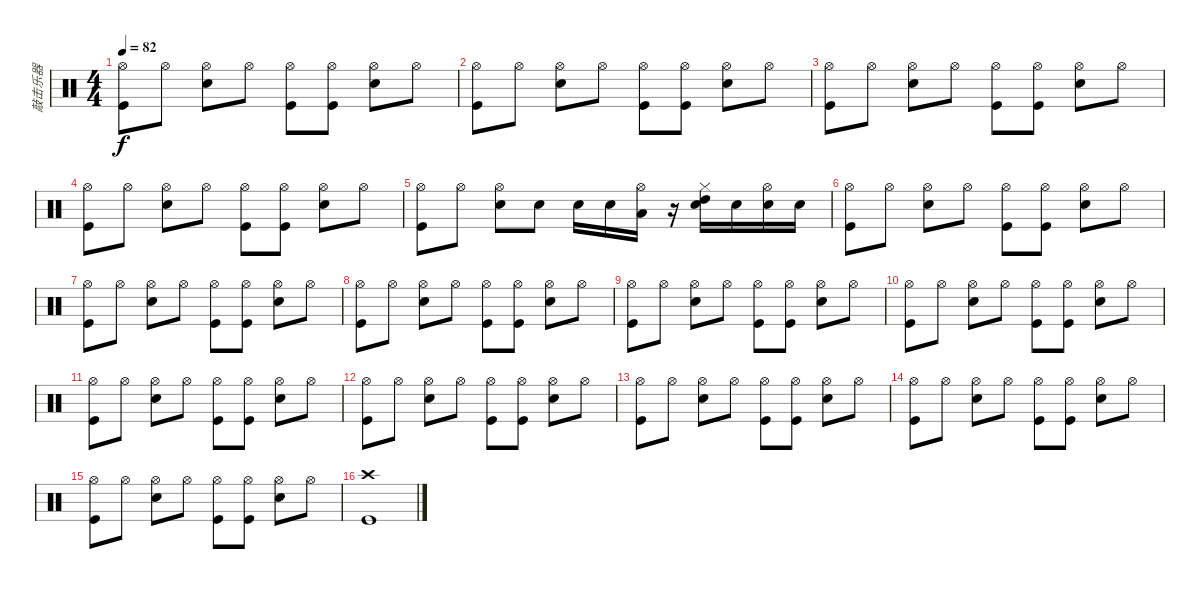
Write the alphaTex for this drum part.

\track ("敲击乐器" "敲击乐器") {instrument percussion}
\staff {score}
\articulation defaults
\ts (4 4)
\tempo 82
\clef neutral
\ks c
("Hi-Hat (open)" "Kick (hit)").8{dy f} "Hi-Hat (open)".8 ("Hi-Hat (open)" "Snare (hit) 2").8 "Hi-Hat (open)".8 ("Hi-Hat (open)" "Kick (hit)").8 ("Hi-Hat (open)" "Kick (hit)").8 ("Hi-Hat (open)" "Snare (hit) 2").8 "Hi-Hat (open)".8 |
("Hi-Hat (open)" "Kick (hit)").8 "Hi-Hat (open)".8 ("Hi-Hat (open)" "Snare (hit) 2").8 "Hi-Hat (open)".8 ("Hi-Hat (open)" "Kick (hit)").8 ("Hi-Hat (open)" "Kick (hit)").8 ("Hi-Hat (open)" "Snare (hit) 2").8 "Hi-Hat (open)".8 |
("Hi-Hat (open)" "Kick (hit)").8 "Hi-Hat (open)".8 ("Hi-Hat (open)" "Snare (hit) 2").8 "Hi-Hat (open)".8 ("Hi-Hat (open)" "Kick (hit)").8 ("Hi-Hat (open)" "Kick (hit)").8 ("Hi-Hat (open)" "Snare (hit) 2").8 "Hi-Hat (open)".8 |
("Hi-Hat (open)" "Kick (hit)").8 "Hi-Hat (open)".8 ("Hi-Hat (open)" "Snare (hit) 2").8 "Hi-Hat (open)".8 ("Hi-Hat (open)" "Kick (hit)").8 ("Hi-Hat (open)" "Kick (hit)").8 ("Hi-Hat (open)" "Snare (hit) 2").8 "Hi-Hat (open)".8 |
("Hi-Hat (open)" "Kick (hit)").8 "Hi-Hat (open)".8 ("Hi-Hat (open)" "Snare (hit) 2").8 "Snare (hit) 2".8 "Snare (hit) 2".16 "Snare (hit) 2".16 ("Hi-Hat (open)" "Low Tom (hit)").16 r.16 ("Hi-Hat (closed)" "High Tom (hit)" "Snare (hit) 2").16 "Snare (hit) 2".16 ("Hi-Hat (open)" "Snare (hit) 2").16 "Snare (hit) 2".16 |
("Hi-Hat (open)" "Kick (hit)").8 "Hi-Hat (open)".8 ("Hi-Hat (open)" "Snare (hit) 2").8 "Hi-Hat (open)".8 ("Hi-Hat (open)" "Kick (hit)").8 ("Hi-Hat (open)" "Kick (hit)").8 ("Hi-Hat (open)" "Snare (hit) 2").8 "Hi-Hat (open)".8 |
("Hi-Hat (open)" "Kick (hit)").8 "Hi-Hat (open)".8 ("Hi-Hat (open)" "Snare (hit) 2").8 "Hi-Hat (open)".8 ("Hi-Hat (open)" "Kick (hit)").8 ("Hi-Hat (open)" "Kick (hit)").8 ("Hi-Hat (open)" "Snare (hit) 2").8 "Hi-Hat (open)".8 |
("Hi-Hat (open)" "Kick (hit)").8 "Hi-Hat (open)".8 ("Hi-Hat (open)" "Snare (hit) 2").8 "Hi-Hat (open)".8 ("Hi-Hat (open)" "Kick (hit)").8 ("Hi-Hat (open)" "Kick (hit)").8 ("Hi-Hat (open)" "Snare (hit) 2").8 "Hi-Hat (open)".8 |
("Hi-Hat (open)" "Kick (hit)").8 "Hi-Hat (open)".8 ("Hi-Hat (open)" "Snare (hit) 2").8 "Hi-Hat (open)".8 ("Hi-Hat (open)" "Kick (hit)").8 ("Hi-Hat (open)" "Kick (hit)").8 ("Hi-Hat (open)" "Snare (hit) 2").8 "Hi-Hat (open)".8 |
("Hi-Hat (open)" "Kick (hit)").8 "Hi-Hat (open)".8 ("Hi-Hat (open)" "Snare (hit) 2").8 "Hi-Hat (open)".8 ("Hi-Hat (open)" "Kick (hit)").8 ("Hi-Hat (open)" "Kick (hit)").8 ("Hi-Hat (open)" "Snare (hit) 2").8 "Hi-Hat (open)".8 |
("Hi-Hat (open)" "Kick (hit)").8 "Hi-Hat (open)".8 ("Hi-Hat (open)" "Snare (hit) 2").8 "Hi-Hat (open)".8 ("Hi-Hat (open)" "Kick (hit)").8 ("Hi-Hat (open)" "Kick (hit)").8 ("Hi-Hat (open)" "Snare (hit) 2").8 "Hi-Hat (open)".8 |
("Hi-Hat (open)" "Kick (hit)").8 "Hi-Hat (open)".8 ("Hi-Hat (open)" "Snare (hit) 2").8 "Hi-Hat (open)".8 ("Hi-Hat (open)" "Kick (hit)").8 ("Hi-Hat (open)" "Kick (hit)").8 ("Hi-Hat (open)" "Snare (hit) 2").8 "Hi-Hat (open)".8 |
("Hi-Hat (open)" "Kick (hit)").8 "Hi-Hat (open)".8 ("Hi-Hat (open)" "Snare (hit) 2").8 "Hi-Hat (open)".8 ("Hi-Hat (open)" "Kick (hit)").8 ("Hi-Hat (open)" "Kick (hit)").8 ("Hi-Hat (open)" "Snare (hit) 2").8 "Hi-Hat (open)".8 |
("Hi-Hat (open)" "Kick (hit)").8 "Hi-Hat (open)".8 ("Hi-Hat (open)" "Snare (hit) 2").8 "Hi-Hat (open)".8 ("Hi-Hat (open)" "Kick (hit)").8 ("Hi-Hat (open)" "Kick (hit)").8 ("Hi-Hat (open)" "Snare (hit) 2").8 "Hi-Hat (open)".8 |
("Hi-Hat (open)" "Kick (hit)").8 "Hi-Hat (open)".8 ("Hi-Hat (open)" "Snare (hit) 2").8 "Hi-Hat (open)".8 ("Hi-Hat (open)" "Kick (hit)").8 ("Hi-Hat (open)" "Kick (hit)").8 ("Hi-Hat (open)" "Snare (hit) 2").8 "Hi-Hat (open)".8 |
("Crash high (hit)" "Kick (hit)").1
